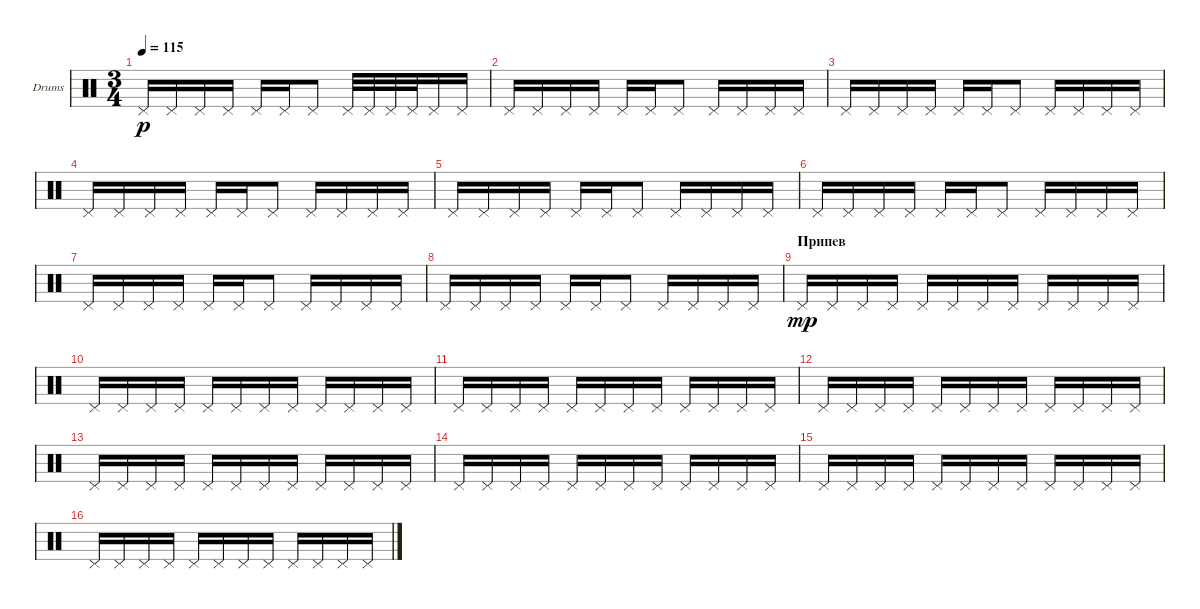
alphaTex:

\defaultSystemsLayout 4
\bracketExtendMode groupsimilarinstruments
\firstSystemTrackNameOrientation horizontal
\otherSystemsTrackNameOrientation horizontal
\track ("Е. Кулаков" "Drums") {instrument percussion}
\staff {score}
\articulation defaults
\ts (3 4)
\tempo 115
\clef neutral
\ks c "Pedal Hi-Hat (hit)".16{dy p} "Pedal Hi-Hat (hit)".16 "Pedal Hi-Hat (hit)".16 "Pedal Hi-Hat (hit)".16 "Pedal Hi-Hat (hit)".16 "Pedal Hi-Hat (hit)".16 "Pedal Hi-Hat (hit)".8 "Pedal Hi-Hat (hit)".32 "Pedal Hi-Hat (hit)".32 "Pedal Hi-Hat (hit)".32 "Pedal Hi-Hat (hit)".32 "Pedal Hi-Hat (hit)".16 "Pedal Hi-Hat (hit)".16
|
"Pedal Hi-Hat (hit)".16 "Pedal Hi-Hat (hit)".16 "Pedal Hi-Hat (hit)".16 "Pedal Hi-Hat (hit)".16 "Pedal Hi-Hat (hit)".16 "Pedal Hi-Hat (hit)".16 "Pedal Hi-Hat (hit)".8 "Pedal Hi-Hat (hit)".16 "Pedal Hi-Hat (hit)".16 "Pedal Hi-Hat (hit)".16 "Pedal Hi-Hat (hit)".16 |
"Pedal Hi-Hat (hit)".16 "Pedal Hi-Hat (hit)".16 "Pedal Hi-Hat (hit)".16 "Pedal Hi-Hat (hit)".16 "Pedal Hi-Hat (hit)".16 "Pedal Hi-Hat (hit)".16 "Pedal Hi-Hat (hit)".8 "Pedal Hi-Hat (hit)".16 "Pedal Hi-Hat (hit)".16 "Pedal Hi-Hat (hit)".16 "Pedal Hi-Hat (hit)".16 |
"Pedal Hi-Hat (hit)".16 "Pedal Hi-Hat (hit)".16 "Pedal Hi-Hat (hit)".16 "Pedal Hi-Hat (hit)".16 "Pedal Hi-Hat (hit)".16 "Pedal Hi-Hat (hit)".16 "Pedal Hi-Hat (hit)".8 "Pedal Hi-Hat (hit)".16 "Pedal Hi-Hat (hit)".16 "Pedal Hi-Hat (hit)".16 "Pedal Hi-Hat (hit)".16 |
"Pedal Hi-Hat (hit)".16 "Pedal Hi-Hat (hit)".16 "Pedal Hi-Hat (hit)".16 "Pedal Hi-Hat (hit)".16 "Pedal Hi-Hat (hit)".16 "Pedal Hi-Hat (hit)".16 "Pedal Hi-Hat (hit)".8 "Pedal Hi-Hat (hit)".16 "Pedal Hi-Hat (hit)".16 "Pedal Hi-Hat (hit)".16 "Pedal Hi-Hat (hit)".16 |
"Pedal Hi-Hat (hit)".16 "Pedal Hi-Hat (hit)".16 "Pedal Hi-Hat (hit)".16 "Pedal Hi-Hat (hit)".16 "Pedal Hi-Hat (hit)".16 "Pedal Hi-Hat (hit)".16 "Pedal Hi-Hat (hit)".8 "Pedal Hi-Hat (hit)".16 "Pedal Hi-Hat (hit)".16 "Pedal Hi-Hat (hit)".16 "Pedal Hi-Hat (hit)".16 |
"Pedal Hi-Hat (hit)".16 "Pedal Hi-Hat (hit)".16 "Pedal Hi-Hat (hit)".16 "Pedal Hi-Hat (hit)".16 "Pedal Hi-Hat (hit)".16 "Pedal Hi-Hat (hit)".16 "Pedal Hi-Hat (hit)".8 "Pedal Hi-Hat (hit)".16 "Pedal Hi-Hat (hit)".16 "Pedal Hi-Hat (hit)".16 "Pedal Hi-Hat (hit)".16 |
"Pedal Hi-Hat (hit)".16 "Pedal Hi-Hat (hit)".16 "Pedal Hi-Hat (hit)".16 "Pedal Hi-Hat (hit)".16 "Pedal Hi-Hat (hit)".16 "Pedal Hi-Hat (hit)".16 "Pedal Hi-Hat (hit)".8 "Pedal Hi-Hat (hit)".16 "Pedal Hi-Hat (hit)".16 "Pedal Hi-Hat (hit)".16 "Pedal Hi-Hat (hit)".16 |
\section ("" "Припев")
"Pedal Hi-Hat (hit)".16{dy mp} "Pedal Hi-Hat (hit)".16 "Pedal Hi-Hat (hit)".16 "Pedal Hi-Hat (hit)".16 "Pedal Hi-Hat (hit)".16 "Pedal Hi-Hat (hit)".16 "Pedal Hi-Hat (hit)".16 "Pedal Hi-Hat (hit)".16 "Pedal Hi-Hat (hit)".16 "Pedal Hi-Hat (hit)".16 "Pedal Hi-Hat (hit)".16 "Pedal Hi-Hat (hit)".16 |
"Pedal Hi-Hat (hit)".16 "Pedal Hi-Hat (hit)".16 "Pedal Hi-Hat (hit)".16 "Pedal Hi-Hat (hit)".16 "Pedal Hi-Hat (hit)".16 "Pedal Hi-Hat (hit)".16 "Pedal Hi-Hat (hit)".16 "Pedal Hi-Hat (hit)".16 "Pedal Hi-Hat (hit)".16 "Pedal Hi-Hat (hit)".16 "Pedal Hi-Hat (hit)".16 "Pedal Hi-Hat (hit)".16 |
"Pedal Hi-Hat (hit)".16 "Pedal Hi-Hat (hit)".16 "Pedal Hi-Hat (hit)".16 "Pedal Hi-Hat (hit)".16 "Pedal Hi-Hat (hit)".16 "Pedal Hi-Hat (hit)".16 "Pedal Hi-Hat (hit)".16 "Pedal Hi-Hat (hit)".16 "Pedal Hi-Hat (hit)".16 "Pedal Hi-Hat (hit)".16 "Pedal Hi-Hat (hit)".16 "Pedal Hi-Hat (hit)".16 |
"Pedal Hi-Hat (hit)".16 "Pedal Hi-Hat (hit)".16 "Pedal Hi-Hat (hit)".16 "Pedal Hi-Hat (hit)".16 "Pedal Hi-Hat (hit)".16 "Pedal Hi-Hat (hit)".16 "Pedal Hi-Hat (hit)".16 "Pedal Hi-Hat (hit)".16 "Pedal Hi-Hat (hit)".16 "Pedal Hi-Hat (hit)".16 "Pedal Hi-Hat (hit)".16 "Pedal Hi-Hat (hit)".16 |
"Pedal Hi-Hat (hit)".16 "Pedal Hi-Hat (hit)".16 "Pedal Hi-Hat (hit)".16 "Pedal Hi-Hat (hit)".16 "Pedal Hi-Hat (hit)".16 "Pedal Hi-Hat (hit)".16 "Pedal Hi-Hat (hit)".16 "Pedal Hi-Hat (hit)".16 "Pedal Hi-Hat (hit)".16 "Pedal Hi-Hat (hit)".16 "Pedal Hi-Hat (hit)".16 "Pedal Hi-Hat (hit)".16 |
"Pedal Hi-Hat (hit)".16 "Pedal Hi-Hat (hit)".16 "Pedal Hi-Hat (hit)".16 "Pedal Hi-Hat (hit)".16 "Pedal Hi-Hat (hit)".16 "Pedal Hi-Hat (hit)".16 "Pedal Hi-Hat (hit)".16 "Pedal Hi-Hat (hit)".16 "Pedal Hi-Hat (hit)".16 "Pedal Hi-Hat (hit)".16 "Pedal Hi-Hat (hit)".16 "Pedal Hi-Hat (hit)".16 |
"Pedal Hi-Hat (hit)".16 "Pedal Hi-Hat (hit)".16 "Pedal Hi-Hat (hit)".16 "Pedal Hi-Hat (hit)".16 "Pedal Hi-Hat (hit)".16 "Pedal Hi-Hat (hit)".16 "Pedal Hi-Hat (hit)".16 "Pedal Hi-Hat (hit)".16 "Pedal Hi-Hat (hit)".16 "Pedal Hi-Hat (hit)".16 "Pedal Hi-Hat (hit)".16 "Pedal Hi-Hat (hit)".16 |
"Pedal Hi-Hat (hit)".16 "Pedal Hi-Hat (hit)".16 "Pedal Hi-Hat (hit)".16 "Pedal Hi-Hat (hit)".16 "Pedal Hi-Hat (hit)".16 "Pedal Hi-Hat (hit)".16 "Pedal Hi-Hat (hit)".16 "Pedal Hi-Hat (hit)".16 "Pedal Hi-Hat (hit)".16 "Pedal Hi-Hat (hit)".16 "Pedal Hi-Hat (hit)".16 "Pedal Hi-Hat (hit)".16
